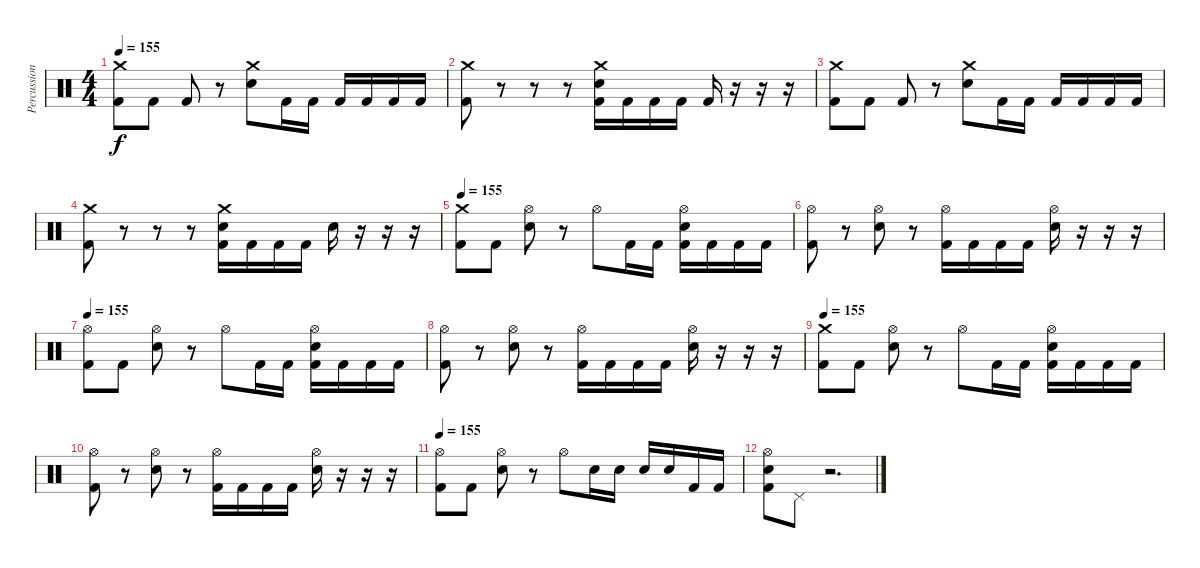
\track ("Percussion" "Percussion") {instrument percussion}
\staff {score}
\articulation defaults
\ts (4 4)
\tempo 155
\clef neutral
\ks c
("Crash medium (hit)" "Kick (hit) 2").8{dy f} "Kick (hit) 2".8 "Kick (hit) 2".8 r.8 ("Crash medium (hit)" "Snare (hit) 2").8 "Kick (hit) 2".16 "Kick (hit) 2".16 "Kick (hit) 2".16 "Kick (hit) 2".16 "Kick (hit) 2".16 "Kick (hit) 2".16 |
("Crash medium (hit)" "Kick (hit) 2").8 r.8 r.8 r.8 ("Crash medium (hit)" "Snare (hit) 2" "Kick (hit) 2").16 "Kick (hit) 2".16 "Kick (hit) 2".16 "Kick (hit) 2".16 "Kick (hit) 2".16 r.16 r.16 r.16 |
("Crash medium (hit)" "Kick (hit) 2").8 "Kick (hit) 2".8 "Kick (hit) 2".8 r.8 ("Crash medium (hit)" "Snare (hit) 2").8 "Kick (hit) 2".16 "Kick (hit) 2".16 "Kick (hit) 2".16 "Kick (hit) 2".16 "Kick (hit) 2".16 "Kick (hit) 2".16 |
("Crash medium (hit)" "Kick (hit) 2").8 r.8 r.8 r.8 ("Crash medium (hit)" "Snare (hit) 2" "Kick (hit) 2").16 "Kick (hit) 2".16 "Kick (hit) 2".16 "Kick (hit) 2".16 "Snare (hit) 2".16 r.16 r.16 r.16 |
\tempo 155
("Crash medium (hit)" "Kick (hit) 2").8 "Kick (hit) 2".8 ("Hi-Hat (open)" "Snare (hit) 2").8 r.8 "Hi-Hat (open)".8 "Kick (hit) 2".16 "Kick (hit) 2".16 ("Hi-Hat (open)" "Snare (hit) 2" "Kick (hit) 2").16 "Kick (hit) 2".16 "Kick (hit) 2".16 "Kick (hit) 2".16 |
("Hi-Hat (open)" "Kick (hit) 2").8 r.8 ("Hi-Hat (open)" "Snare (hit) 2").8 r.8 ("Hi-Hat (open)" "Kick (hit) 2").16 "Kick (hit) 2".16 "Kick (hit) 2".16 "Kick (hit) 2".16 ("Hi-Hat (open)" "Snare (hit) 2").16 r.16 r.16 r.16 |
\tempo 155
("Hi-Hat (open)" "Kick (hit) 2").8 "Kick (hit) 2".8 ("Hi-Hat (open)" "Snare (hit) 2").8 r.8 "Hi-Hat (open)".8 "Kick (hit) 2".16 "Kick (hit) 2".16 ("Hi-Hat (open)" "Snare (hit) 2" "Kick (hit) 2").16 "Kick (hit) 2".16 "Kick (hit) 2".16 "Kick (hit) 2".16 |
("Hi-Hat (open)" "Kick (hit) 2").8 r.8 ("Hi-Hat (open)" "Snare (hit) 2").8 r.8 ("Hi-Hat (open)" "Kick (hit) 2").16 "Kick (hit) 2".16 "Kick (hit) 2".16 "Kick (hit) 2".16 ("Hi-Hat (open)" "Snare (hit) 2").16 r.16 r.16 r.16 |
\tempo 155
("Crash medium (hit)" "Kick (hit) 2").8 "Kick (hit) 2".8 ("Hi-Hat (open)" "Snare (hit) 2").8 r.8 "Hi-Hat (open)".8 "Kick (hit) 2".16 "Kick (hit) 2".16 ("Hi-Hat (open)" "Snare (hit) 2" "Kick (hit) 2").16 "Kick (hit) 2".16 "Kick (hit) 2".16 "Kick (hit) 2".16 |
("Hi-Hat (open)" "Kick (hit) 2").8 r.8 ("Hi-Hat (open)" "Snare (hit) 2").8 r.8 ("Hi-Hat (open)" "Kick (hit) 2").16 "Kick (hit) 2".16 "Kick (hit) 2".16 "Kick (hit) 2".16 ("Hi-Hat (open)" "Snare (hit) 2").16 r.16 r.16 r.16 |
\tempo 155
("Hi-Hat (open)" "Kick (hit) 2").8 "Kick (hit) 2".8 ("Hi-Hat (open)" "Snare (hit) 2").8 r.8 "Hi-Hat (open)".8 "Snare (hit) 2".16 "Snare (hit) 2".16 "Snare (hit) 2".16 "Snare (hit) 2".16 "Kick (hit) 2".16 "Kick (hit) 2".16 |
("Hi-Hat (open)" "Snare (hit) 2" "Kick (hit) 2").8 "Pedal Hi-Hat (hit)".8 r.2{d}
